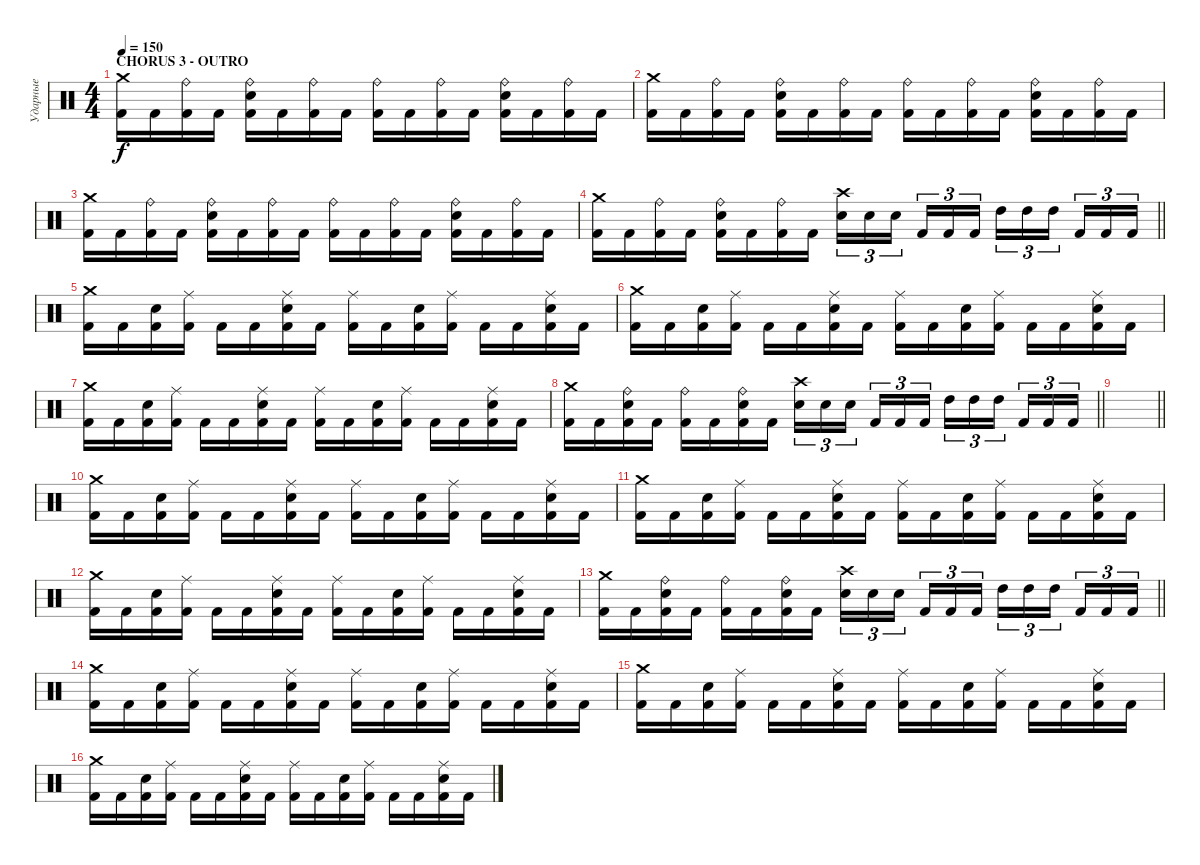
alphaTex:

\track ("Ударные" "Ударные") {instrument percussion}
\staff {score}
\articulation defaults
\ts (4 4)
\section ("" "CHORUS 3 - OUTRO")
\tempo 150
\clef neutral
\ks c
("Kick (hit) 2" "Crash medium (hit)").16{dy f} "Kick (hit) 2".16 ("Kick (hit) 2" "Ride (bell)").16 "Kick (hit) 2".16 ("Kick (hit) 2" "Snare (hit) 2" "Ride (bell)").16 "Kick (hit) 2".16 ("Kick (hit) 2" "Ride (bell)").16 "Kick (hit) 2".16 ("Kick (hit) 2" "Ride (bell)").16 "Kick (hit) 2".16 ("Kick (hit) 2" "Ride (bell)").16 "Kick (hit) 2".16 ("Kick (hit) 2" "Snare (hit) 2" "Ride (bell)").16 "Kick (hit) 2".16 ("Kick (hit) 2" "Ride (bell)").16 "Kick (hit) 2".16 |
("Kick (hit) 2" "Crash medium (hit)").16 "Kick (hit) 2".16 ("Kick (hit) 2" "Ride (bell)").16 "Kick (hit) 2".16 ("Kick (hit) 2" "Snare (hit) 2" "Ride (bell)").16 "Kick (hit) 2".16 ("Kick (hit) 2" "Ride (bell)").16 "Kick (hit) 2".16 ("Kick (hit) 2" "Ride (bell)").16 "Kick (hit) 2".16 ("Kick (hit) 2" "Ride (bell)").16 "Kick (hit) 2".16 ("Kick (hit) 2" "Snare (hit) 2" "Ride (bell)").16 "Kick (hit) 2".16 ("Kick (hit) 2" "Ride (bell)").16 "Kick (hit) 2".16 |
("Kick (hit) 2" "Crash medium (hit)").16 "Kick (hit) 2".16 ("Kick (hit) 2" "Ride (bell)").16 "Kick (hit) 2".16 ("Kick (hit) 2" "Snare (hit) 2" "Ride (bell)").16 "Kick (hit) 2".16 ("Kick (hit) 2" "Ride (bell)").16 "Kick (hit) 2".16 ("Kick (hit) 2" "Ride (bell)").16 "Kick (hit) 2".16 ("Kick (hit) 2" "Ride (bell)").16 "Kick (hit) 2".16 ("Kick (hit) 2" "Snare (hit) 2" "Ride (bell)").16 "Kick (hit) 2".16 ("Kick (hit) 2" "Ride (bell)").16 "Kick (hit) 2".16 |
\barLineRight lightlight
("Kick (hit) 2" "Crash medium (hit)").16 "Kick (hit) 2".16 ("Kick (hit) 2" "Ride (bell)").16 "Kick (hit) 2".16 ("Kick (hit) 2" "Snare (hit) 2" "Ride (bell)").16 "Kick (hit) 2".16 ("Kick (hit) 2" "Ride (bell)").16 "Kick (hit) 2".16 ("Snare (hit) 2" "Crash high (hit)").16{tu (3 2)} "Snare (hit) 2".16{tu (3 2)} "Snare (hit) 2".16{tu (3 2)} "Kick (hit) 2".16{tu (3 2)} "Kick (hit) 2".16{tu (3 2)} "Kick (hit) 2".16{tu (3 2)} "High Tom (hit)".16{tu (3 2)} "High Tom (hit)".16{tu (3 2)} "High Tom (hit)".16{tu (3 2)} "Kick (hit) 2".16{tu (3 2)} "Kick (hit) 2".16{tu (3 2)} "Kick (hit) 2".16{tu (3 2)} |
("Kick (hit) 2" "Crash medium (hit)").16 "Kick (hit) 2".16 ("Kick (hit) 2" "Snare (hit) 2").16 ("Kick (hit) 2" "Ride (middle)").16 "Kick (hit) 2".16 "Kick (hit) 2".16 ("Kick (hit) 2" "Snare (hit) 2" "Ride (middle)").16 "Kick (hit) 2".16 ("Kick (hit) 2" "Ride (middle)").16 "Kick (hit) 2".16 ("Kick (hit) 2" "Snare (hit) 2").16 ("Kick (hit) 2" "Ride (middle)").16 "Kick (hit) 2".16 "Kick (hit) 2".16 ("Kick (hit) 2" "Snare (hit) 2" "Ride (middle)").16 "Kick (hit) 2".16 |
("Kick (hit) 2" "Crash medium (hit)").16 "Kick (hit) 2".16 ("Kick (hit) 2" "Snare (hit) 2").16 ("Kick (hit) 2" "Ride (middle)").16 "Kick (hit) 2".16 "Kick (hit) 2".16 ("Kick (hit) 2" "Snare (hit) 2" "Ride (middle)").16 "Kick (hit) 2".16 ("Kick (hit) 2" "Ride (middle)").16 "Kick (hit) 2".16 ("Kick (hit) 2" "Snare (hit) 2").16 ("Kick (hit) 2" "Ride (middle)").16 "Kick (hit) 2".16 "Kick (hit) 2".16 ("Kick (hit) 2" "Snare (hit) 2" "Ride (middle)").16 "Kick (hit) 2".16 |
("Kick (hit) 2" "Crash medium (hit)").16 "Kick (hit) 2".16 ("Kick (hit) 2" "Snare (hit) 2").16 ("Kick (hit) 2" "Ride (middle)").16 "Kick (hit) 2".16 "Kick (hit) 2".16 ("Kick (hit) 2" "Snare (hit) 2" "Ride (middle)").16 "Kick (hit) 2".16 ("Kick (hit) 2" "Ride (middle)").16 "Kick (hit) 2".16 ("Kick (hit) 2" "Snare (hit) 2").16 ("Kick (hit) 2" "Ride (middle)").16 "Kick (hit) 2".16 "Kick (hit) 2".16 ("Kick (hit) 2" "Snare (hit) 2" "Ride (middle)").16 "Kick (hit) 2".16 |
\barLineRight lightlight
("Kick (hit) 2" "Crash medium (hit)").16 "Kick (hit) 2".16 ("Kick (hit) 2" "Snare (hit) 2" "Ride (bell)").16 "Kick (hit) 2".16 ("Kick (hit) 2" "Ride (bell)").16 "Kick (hit) 2".16 ("Kick (hit) 2" "Snare (hit) 2" "Ride (bell)").16 "Kick (hit) 2".16 ("Snare (hit) 2" "Crash high (hit)").16{tu (3 2)} "Snare (hit) 2".16{tu (3 2)} "Snare (hit) 2".16{tu (3 2)} "Kick (hit) 2".16{tu (3 2)} "Kick (hit) 2".16{tu (3 2)} "Kick (hit) 2".16{tu (3 2)} "High Tom (hit)".16{tu (3 2)} "High Tom (hit)".16{tu (3 2)} "High Tom (hit)".16{tu (3 2)} "Kick (hit) 2".16{tu (3 2)} "Kick (hit) 2".16{tu (3 2)} "Kick (hit) 2".16{tu (3 2)} |
\barLineRight lightlight
|
("Kick (hit) 2" "Crash medium (hit)").16 "Kick (hit) 2".16 ("Kick (hit) 2" "Snare (hit) 2").16 ("Kick (hit) 2" "Ride (middle)").16 "Kick (hit) 2".16 "Kick (hit) 2".16 ("Kick (hit) 2" "Snare (hit) 2" "Ride (middle)").16 "Kick (hit) 2".16 ("Kick (hit) 2" "Ride (middle)").16 "Kick (hit) 2".16 ("Kick (hit) 2" "Snare (hit) 2").16 ("Kick (hit) 2" "Ride (middle)").16 "Kick (hit) 2".16 "Kick (hit) 2".16 ("Kick (hit) 2" "Snare (hit) 2" "Ride (middle)").16 "Kick (hit) 2".16 |
("Kick (hit) 2" "Crash medium (hit)").16 "Kick (hit) 2".16 ("Kick (hit) 2" "Snare (hit) 2").16 ("Kick (hit) 2" "Ride (middle)").16 "Kick (hit) 2".16 "Kick (hit) 2".16 ("Kick (hit) 2" "Snare (hit) 2" "Ride (middle)").16 "Kick (hit) 2".16 ("Kick (hit) 2" "Ride (middle)").16 "Kick (hit) 2".16 ("Kick (hit) 2" "Snare (hit) 2").16 ("Kick (hit) 2" "Ride (middle)").16 "Kick (hit) 2".16 "Kick (hit) 2".16 ("Kick (hit) 2" "Snare (hit) 2" "Ride (middle)").16 "Kick (hit) 2".16 |
("Kick (hit) 2" "Crash medium (hit)").16 "Kick (hit) 2".16 ("Kick (hit) 2" "Snare (hit) 2").16 ("Kick (hit) 2" "Ride (middle)").16 "Kick (hit) 2".16 "Kick (hit) 2".16 ("Kick (hit) 2" "Snare (hit) 2" "Ride (middle)").16 "Kick (hit) 2".16 ("Kick (hit) 2" "Ride (middle)").16 "Kick (hit) 2".16 ("Kick (hit) 2" "Snare (hit) 2").16 ("Kick (hit) 2" "Ride (middle)").16 "Kick (hit) 2".16 "Kick (hit) 2".16 ("Kick (hit) 2" "Snare (hit) 2" "Ride (middle)").16 "Kick (hit) 2".16 |
\barLineRight lightlight
("Kick (hit) 2" "Crash medium (hit)").16 "Kick (hit) 2".16 ("Kick (hit) 2" "Snare (hit) 2" "Ride (bell)").16 "Kick (hit) 2".16 ("Kick (hit) 2" "Ride (bell)").16 "Kick (hit) 2".16 ("Kick (hit) 2" "Snare (hit) 2" "Ride (bell)").16 "Kick (hit) 2".16 ("Snare (hit) 2" "Crash high (hit)").16{tu (3 2)} "Snare (hit) 2".16{tu (3 2)} "Snare (hit) 2".16{tu (3 2)} "Kick (hit) 2".16{tu (3 2)} "Kick (hit) 2".16{tu (3 2)} "Kick (hit) 2".16{tu (3 2)} "High Tom (hit)".16{tu (3 2)} "High Tom (hit)".16{tu (3 2)} "High Tom (hit)".16{tu (3 2)} "Kick (hit) 2".16{tu (3 2)} "Kick (hit) 2".16{tu (3 2)} "Kick (hit) 2".16{tu (3 2)} |
("Kick (hit) 2" "Crash medium (hit)").16 "Kick (hit) 2".16 ("Kick (hit) 2" "Snare (hit) 2").16 ("Kick (hit) 2" "Ride (middle)").16 "Kick (hit) 2".16 "Kick (hit) 2".16 ("Kick (hit) 2" "Snare (hit) 2" "Ride (middle)").16 "Kick (hit) 2".16 ("Kick (hit) 2" "Ride (middle)").16 "Kick (hit) 2".16 ("Kick (hit) 2" "Snare (hit) 2").16 ("Kick (hit) 2" "Ride (middle)").16 "Kick (hit) 2".16 "Kick (hit) 2".16 ("Kick (hit) 2" "Snare (hit) 2" "Ride (middle)").16 "Kick (hit) 2".16 |
("Kick (hit) 2" "Crash medium (hit)").16 "Kick (hit) 2".16 ("Kick (hit) 2" "Snare (hit) 2").16 ("Kick (hit) 2" "Ride (middle)").16 "Kick (hit) 2".16 "Kick (hit) 2".16 ("Kick (hit) 2" "Snare (hit) 2" "Ride (middle)").16 "Kick (hit) 2".16 ("Kick (hit) 2" "Ride (middle)").16 "Kick (hit) 2".16 ("Kick (hit) 2" "Snare (hit) 2").16 ("Kick (hit) 2" "Ride (middle)").16 "Kick (hit) 2".16 "Kick (hit) 2".16 ("Kick (hit) 2" "Snare (hit) 2" "Ride (middle)").16 "Kick (hit) 2".16 |
("Kick (hit) 2" "Crash medium (hit)").16 "Kick (hit) 2".16 ("Kick (hit) 2" "Snare (hit) 2").16 ("Kick (hit) 2" "Ride (middle)").16 "Kick (hit) 2".16 "Kick (hit) 2".16 ("Kick (hit) 2" "Snare (hit) 2" "Ride (middle)").16 "Kick (hit) 2".16 ("Kick (hit) 2" "Ride (middle)").16 "Kick (hit) 2".16 ("Kick (hit) 2" "Snare (hit) 2").16 ("Kick (hit) 2" "Ride (middle)").16 "Kick (hit) 2".16 "Kick (hit) 2".16 ("Kick (hit) 2" "Snare (hit) 2" "Ride (middle)").16 "Kick (hit) 2".16
